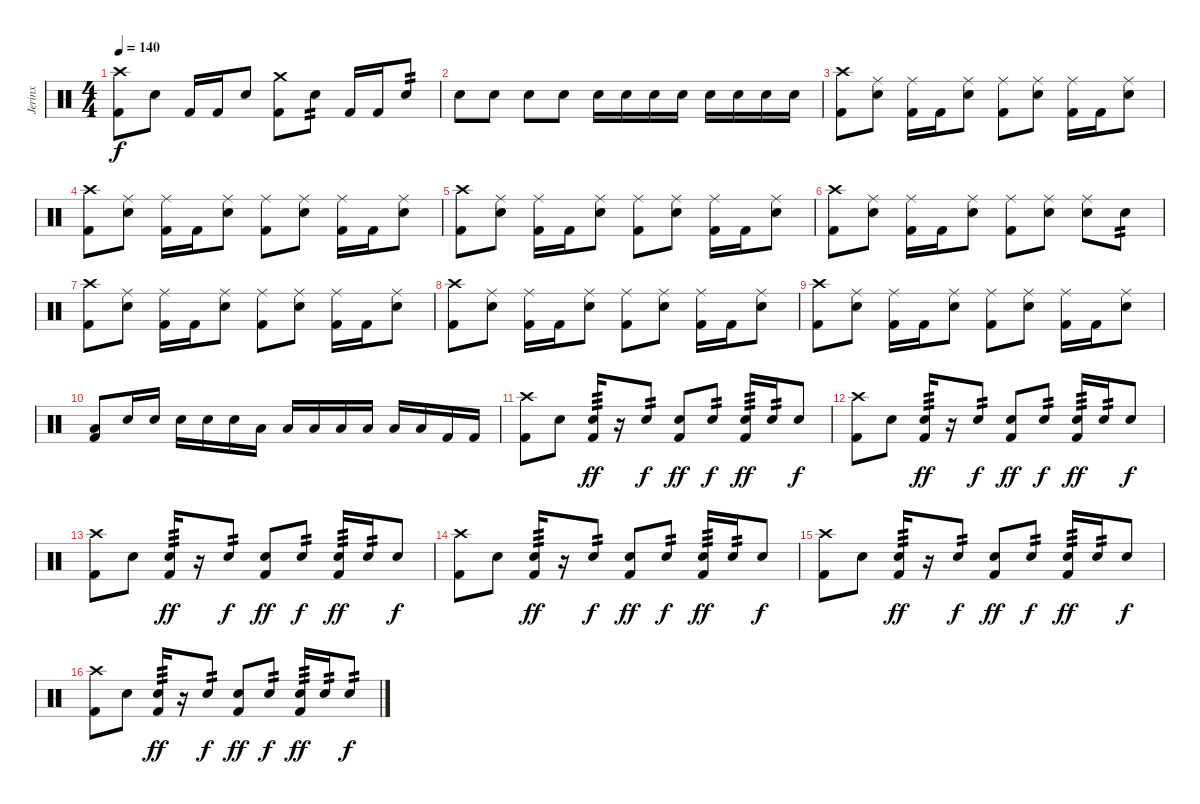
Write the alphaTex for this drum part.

\track ("Jerinx" "Jerinx") {instrument percussion}
\staff {score}
\articulation defaults
\ts (4 4)
\tempo 140
\clef neutral
\ks c
("Crash high (hit)" "Kick (hit) 2").8{dy f} "Electric Snare (hit)".8 "Kick (hit) 2".16 "Kick (hit) 2".16 "Electric Snare (hit)".8 ("Crash medium (hit)" "Kick (hit) 2").8 "Electric Snare (hit)".8{tp 2} "Kick (hit) 2".16 "Kick (hit) 2".16 "Electric Snare (hit)".8{tp 2} |
"Electric Snare (hit)".8 "Electric Snare (hit)".8 "Electric Snare (hit)".8 "Electric Snare (hit)".8 "Electric Snare (hit)".16 "Electric Snare (hit)".16 "Electric Snare (hit)".16 "Electric Snare (hit)".16 "Electric Snare (hit)".16 "Electric Snare (hit)".16 "Electric Snare (hit)".16 "Electric Snare (hit)".16 |
("Crash high (hit)" "Kick (hit) 2").8 ("Ride (middle)" "Electric Snare (hit)").8 ("Ride (middle)" "Kick (hit) 2").16 "Kick (hit) 2".16 ("Ride (middle)" "Electric Snare (hit)").8 ("Ride (middle)" "Kick (hit) 2").8 ("Ride (middle)" "Electric Snare (hit)").8 ("Ride (middle)" "Kick (hit) 2").16 "Kick (hit) 2".16 ("Ride (middle)" "Electric Snare (hit)").8 |
("Crash high (hit)" "Kick (hit) 2").8 ("Ride (middle)" "Electric Snare (hit)").8 ("Ride (middle)" "Kick (hit) 2").16 "Kick (hit) 2".16 ("Ride (middle)" "Electric Snare (hit)").8 ("Ride (middle)" "Kick (hit) 2").8 ("Ride (middle)" "Electric Snare (hit)").8 ("Ride (middle)" "Kick (hit) 2").16 "Kick (hit) 2".16 ("Ride (middle)" "Electric Snare (hit)").8 |
("Crash high (hit)" "Kick (hit) 2").8 ("Ride (middle)" "Electric Snare (hit)").8 ("Ride (middle)" "Kick (hit) 2").16 "Kick (hit) 2".16 ("Ride (middle)" "Electric Snare (hit)").8 ("Ride (middle)" "Kick (hit) 2").8 ("Ride (middle)" "Electric Snare (hit)").8 ("Ride (middle)" "Kick (hit) 2").16 "Kick (hit) 2".16 ("Ride (middle)" "Electric Snare (hit)").8 |
("Crash high (hit)" "Kick (hit) 2").8 ("Ride (middle)" "Electric Snare (hit)").8 ("Ride (middle)" "Kick (hit) 2").16 "Kick (hit) 2".16 ("Ride (middle)" "Electric Snare (hit)").8 ("Ride (middle)" "Kick (hit) 2").8 ("Ride (middle)" "Electric Snare (hit)").8 ("Ride (middle)" "Electric Snare (hit)").8 "Electric Snare (hit)".8{tp 2} |
("Crash high (hit)" "Kick (hit) 2").8 ("Ride (middle)" "Electric Snare (hit)").8 ("Ride (middle)" "Kick (hit) 2").16 "Kick (hit) 2".16 ("Ride (middle)" "Electric Snare (hit)").8 ("Ride (middle)" "Kick (hit) 2").8 ("Ride (middle)" "Electric Snare (hit)").8 ("Ride (middle)" "Kick (hit) 2").16 "Kick (hit) 2".16 ("Ride (middle)" "Electric Snare (hit)").8 |
("Crash high (hit)" "Kick (hit) 2").8 ("Ride (middle)" "Electric Snare (hit)").8 ("Ride (middle)" "Kick (hit) 2").16 "Kick (hit) 2".16 ("Ride (middle)" "Electric Snare (hit)").8 ("Ride (middle)" "Kick (hit) 2").8 ("Ride (middle)" "Electric Snare (hit)").8 ("Ride (middle)" "Kick (hit) 2").16 "Kick (hit) 2".16 ("Ride (middle)" "Electric Snare (hit)").8 |
("Crash high (hit)" "Kick (hit) 2").8 ("Ride (middle)" "Electric Snare (hit)").8 ("Ride (middle)" "Kick (hit) 2").16 "Kick (hit) 2".16 ("Ride (middle)" "Electric Snare (hit)").8 ("Ride (middle)" "Kick (hit) 2").8 ("Ride (middle)" "Electric Snare (hit)").8 ("Ride (middle)" "Kick (hit) 2").16 "Kick (hit) 2".16 ("Ride (middle)" "Electric Snare (hit)").8 |
("Low Tom (hit)" "Kick (hit) 2").8 "Electric Snare (hit)".16 "Electric Snare (hit)".16 "Electric Snare (hit)".16 "Electric Snare (hit)".16 "Electric Snare (hit)".16 "Low Tom (hit)".16 "Low Tom (hit)".16 "Low Tom (hit)".16 "Low Floor Tom (hit)".16 "Low Floor Tom (hit)".16 "Low Floor Tom (hit)".16 "Low Floor Tom (hit)".16 "Kick (hit) 2".16 "Kick (hit) 2".16 |
("Crash high (hit)" "Kick (hit) 2").8 "Electric Snare (hit)".8 ("Electric Snare (hit)" "Kick (hit) 2").16{tp 3 dy ff} r.16 "Electric Snare (hit)".8{tp 2 dy f} ("Electric Snare (hit)" "Kick (hit) 2").8{dy ff} "Electric Snare (hit)".8{tp 2 dy f} ("Electric Snare (hit)" "Kick (hit) 2").16{tp 3 dy ff} "Electric Snare (hit)".16{tp 2} "Electric Snare (hit)".8{dy f} |
("Crash high (hit)" "Kick (hit) 2").8 "Electric Snare (hit)".8 ("Electric Snare (hit)" "Kick (hit) 2").16{tp 3 dy ff} r.16 "Electric Snare (hit)".8{tp 2 dy f} ("Electric Snare (hit)" "Kick (hit) 2").8{dy ff} "Electric Snare (hit)".8{tp 2 dy f} ("Electric Snare (hit)" "Kick (hit) 2").16{tp 3 dy ff} "Electric Snare (hit)".16{tp 2} "Electric Snare (hit)".8{dy f} |
("Crash high (hit)" "Kick (hit) 2").8 "Electric Snare (hit)".8 ("Electric Snare (hit)" "Kick (hit) 2").16{tp 3 dy ff} r.16 "Electric Snare (hit)".8{tp 2 dy f} ("Electric Snare (hit)" "Kick (hit) 2").8{dy ff} "Electric Snare (hit)".8{tp 2 dy f} ("Electric Snare (hit)" "Kick (hit) 2").16{tp 3 dy ff} "Electric Snare (hit)".16{tp 2} "Electric Snare (hit)".8{dy f} |
("Crash high (hit)" "Kick (hit) 2").8 "Electric Snare (hit)".8 ("Electric Snare (hit)" "Kick (hit) 2").16{tp 3 dy ff} r.16 "Electric Snare (hit)".8{tp 2 dy f} ("Electric Snare (hit)" "Kick (hit) 2").8{dy ff} "Electric Snare (hit)".8{tp 2 dy f} ("Electric Snare (hit)" "Kick (hit) 2").16{tp 3 dy ff} "Electric Snare (hit)".16{tp 2} "Electric Snare (hit)".8{dy f} |
("Crash high (hit)" "Kick (hit) 2").8 "Electric Snare (hit)".8 ("Electric Snare (hit)" "Kick (hit) 2").16{tp 3 dy ff} r.16 "Electric Snare (hit)".8{tp 2 dy f} ("Electric Snare (hit)" "Kick (hit) 2").8{dy ff} "Electric Snare (hit)".8{tp 2 dy f} ("Electric Snare (hit)" "Kick (hit) 2").16{tp 3 dy ff} "Electric Snare (hit)".16{tp 2} "Electric Snare (hit)".8{dy f} |
("Crash high (hit)" "Kick (hit) 2").8 "Electric Snare (hit)".8 ("Electric Snare (hit)" "Kick (hit) 2").16{tp 3 dy ff} r.16 "Electric Snare (hit)".8{tp 2 dy f} ("Electric Snare (hit)" "Kick (hit) 2").8{dy ff} "Electric Snare (hit)".8{tp 2 dy f} ("Electric Snare (hit)" "Kick (hit) 2").16{tp 3 dy ff} "Electric Snare (hit)".16{tp 2} "Electric Snare (hit)".8{tp 2 dy f}
